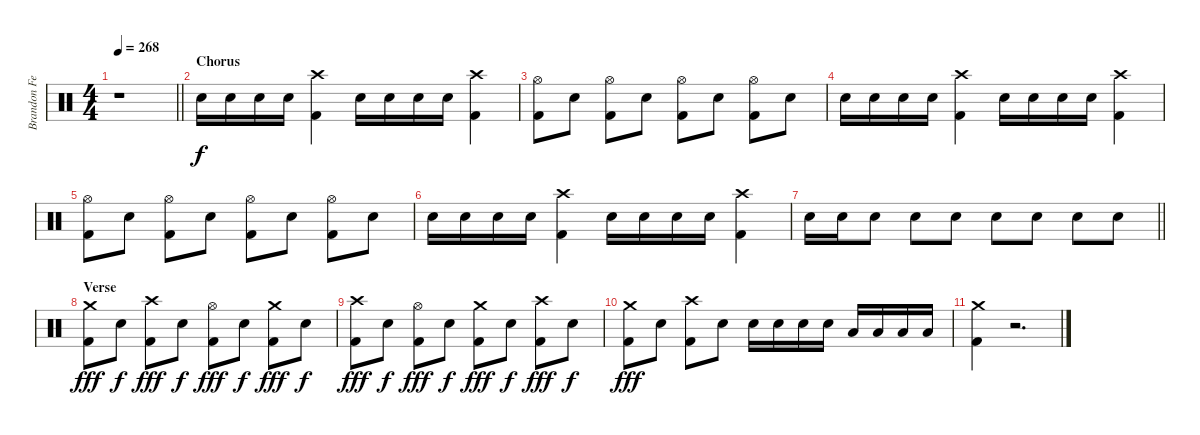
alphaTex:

\track ("Brandon Ferrell" "Brandon Fe") {instrument percussion}
\staff {score}
\articulation defaults
\ts (4 4)
\tempo 268
\clef neutral
\barLineRight lightlight
\ks c
r.1{dy f} |
\section ("" "Chorus")
"Electric Snare (hit)".16 "Electric Snare (hit)".16 "Electric Snare (hit)".16 "Electric Snare (hit)".16 ("Crash high (hit)" "Kick (hit) 2").4 "Electric Snare (hit)".16 "Electric Snare (hit)".16 "Electric Snare (hit)".16 "Electric Snare (hit)".16 ("Crash high (hit)" "Kick (hit) 2").4 |
("Hi-Hat (open)" "Kick (hit) 2").8 "Electric Snare (hit)".8 ("Hi-Hat (open)" "Kick (hit) 2").8 "Electric Snare (hit)".8 ("Hi-Hat (open)" "Kick (hit) 2").8 "Electric Snare (hit)".8 ("Hi-Hat (open)" "Kick (hit) 2").8 "Electric Snare (hit)".8 |
"Electric Snare (hit)".16 "Electric Snare (hit)".16 "Electric Snare (hit)".16 "Electric Snare (hit)".16 ("Crash high (hit)" "Kick (hit) 2").4 "Electric Snare (hit)".16 "Electric Snare (hit)".16 "Electric Snare (hit)".16 "Electric Snare (hit)".16 ("Crash high (hit)" "Kick (hit) 2").4 |
("Hi-Hat (open)" "Kick (hit) 2").8 "Electric Snare (hit)".8 ("Hi-Hat (open)" "Kick (hit) 2").8 "Electric Snare (hit)".8 ("Hi-Hat (open)" "Kick (hit) 2").8 "Electric Snare (hit)".8 ("Hi-Hat (open)" "Kick (hit) 2").8 "Electric Snare (hit)".8 |
"Electric Snare (hit)".16 "Electric Snare (hit)".16 "Electric Snare (hit)".16 "Electric Snare (hit)".16 ("Crash high (hit)" "Kick (hit) 2").4 "Electric Snare (hit)".16 "Electric Snare (hit)".16 "Electric Snare (hit)".16 "Electric Snare (hit)".16 ("Crash high (hit)" "Kick (hit) 2").4 |
\barLineRight lightlight "Electric Snare (hit)".16 "Electric Snare (hit)".16 "Electric Snare (hit)".8 "Electric Snare (hit)".8 "Electric Snare (hit)".8 "Electric Snare (hit)".8 "Electric Snare (hit)".8 "Electric Snare (hit)".8 "Electric Snare (hit)".8
|
\section ("" "Verse")
("Crash medium (hit)" "Kick (hit) 2").8{dy fff} "Electric Snare (hit)".8{dy f} ("Crash high (hit)" "Kick (hit) 2").8{dy fff} "Electric Snare (hit)".8{dy f} ("Hi-Hat (open)" "Kick (hit) 2").8{dy fff} "Electric Snare (hit)".8{dy f} ("Crash medium (hit)" "Kick (hit) 2").8{dy fff} "Electric Snare (hit)".8{dy f} |
("Crash high (hit)" "Kick (hit) 2").8{dy fff} "Electric Snare (hit)".8{dy f} ("Hi-Hat (open)" "Kick (hit) 2").8{dy fff} "Electric Snare (hit)".8{dy f} ("Crash medium (hit)" "Kick (hit) 2").8{dy fff} "Electric Snare (hit)".8{dy f} ("Crash high (hit)" "Kick (hit) 2").8{dy fff} "Electric Snare (hit)".8{dy f} |
("Crash medium (hit)" "Kick (hit) 2").8{dy fff} "Electric Snare (hit)".8 ("Crash high (hit)" "Kick (hit) 2").8 "Electric Snare (hit)".8 "Electric Snare (hit)".16 "Electric Snare (hit)".16 "Electric Snare (hit)".16 "Electric Snare (hit)".16 "Low Tom (hit)".16 "Low Tom (hit)".16 "Low Tom (hit)".16 "Low Tom (hit)".16 |
("Crash medium (hit)" "Kick (hit) 2").4 r.2{d volume 0}
